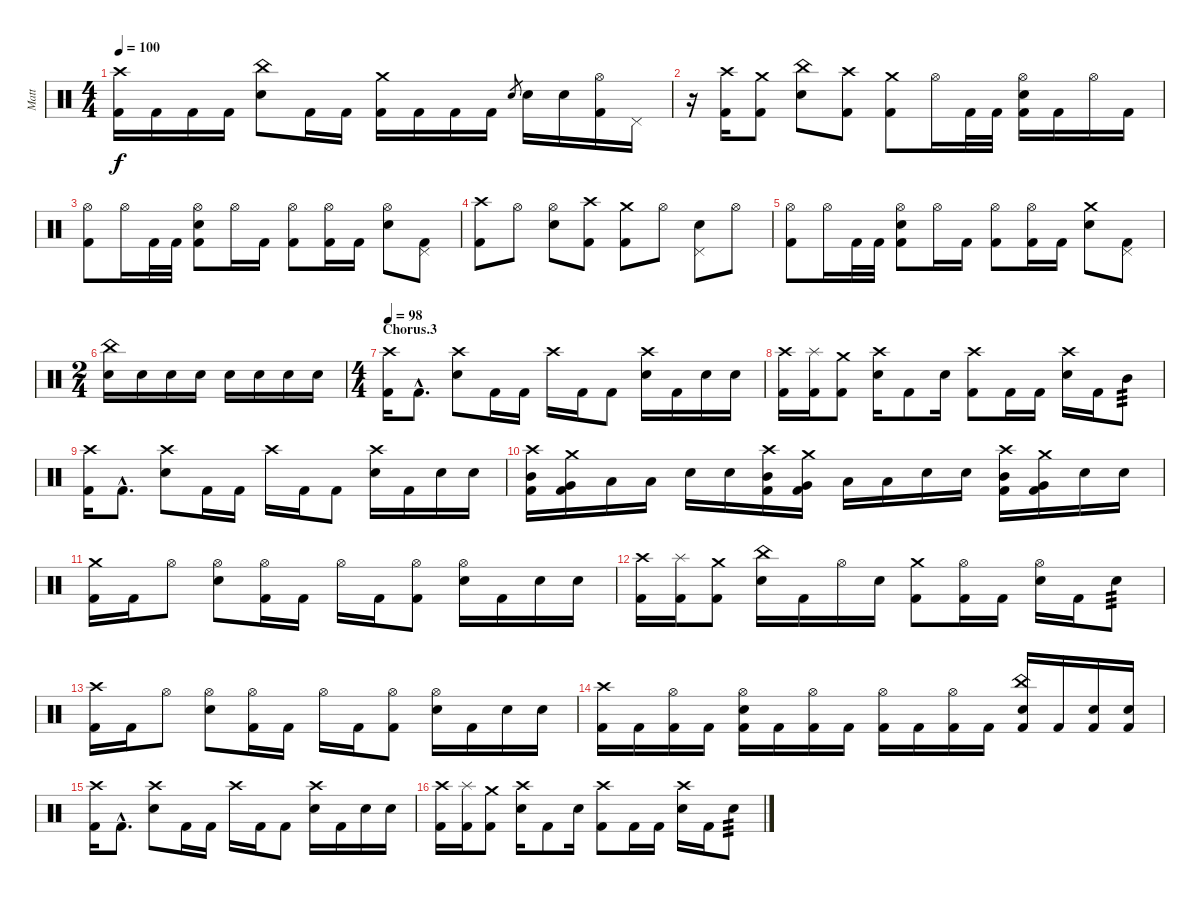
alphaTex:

\track ("Matt" "Matt") {instrument percussion}
\staff {score}
\articulation defaults
\ts (4 4)
\tempo 100
\clef neutral
\ks c
("Crash high (hit)" "Kick (hit) 2").16{dy f} "Kick (hit) 2".16 "Kick (hit) 2".16 "Kick (hit) 2".16 ("China (hit)" "Electric Snare (hit)").8 "Kick (hit) 2".16 "Kick (hit) 2".16 ("Crash medium (hit)" "Kick (hit) 2").16 "Kick (hit) 2".16 "Kick (hit) 2".16 "Kick (hit) 2".16 "Electric Snare (hit)".8{gr} "Electric Snare (hit)".16 "Electric Snare (hit)".16 ("Hi-Hat (open)" "Kick (hit) 2").16 "Pedal Hi-Hat (hit)".16 |
r.16 ("Crash high (hit)" "Kick (hit) 2").16 ("Crash medium (hit)" "Kick (hit) 2").8 ("China (hit)" "Electric Snare (hit)").8 ("Crash high (hit)" "Kick (hit) 2").8 ("Crash medium (hit)" "Kick (hit) 2").8 "Hi-Hat (open)".16 "Kick (hit) 2".32 "Kick (hit) 2".32 ("Hi-Hat (open)" "Electric Snare (hit)" "Kick (hit) 2").16 "Kick (hit) 2".16 "Hi-Hat (open)".16 "Kick (hit) 2".16 |
("Hi-Hat (open)" "Kick (hit) 2").8 "Hi-Hat (open)".16 "Kick (hit) 2".32 "Kick (hit) 2".32 ("Hi-Hat (open)" "Electric Snare (hit)" "Kick (hit) 2").8 "Hi-Hat (open)".16 "Kick (hit) 2".16 ("Hi-Hat (open)" "Kick (hit) 2").8 ("Hi-Hat (open)" "Kick (hit) 2").16 "Kick (hit) 2".16 ("Hi-Hat (open)" "Electric Snare (hit)").8 ("Pedal Hi-Hat (hit)" "Kick (hit) 2").8 |
("Crash high (hit)" "Kick (hit) 2").8 "Hi-Hat (open)".8 ("Hi-Hat (open)" "Electric Snare (hit)").8 ("Crash high (hit)" "Kick (hit) 2").8 ("Crash medium (hit)" "Kick (hit) 2").8 "Hi-Hat (open)".8 ("Pedal Hi-Hat (hit)" "Electric Snare (hit)").8 "Hi-Hat (open)".8 |
("Hi-Hat (open)" "Kick (hit) 2").8 "Hi-Hat (open)".16 "Kick (hit) 2".32 "Kick (hit) 2".32 ("Hi-Hat (open)" "Electric Snare (hit)" "Kick (hit) 2").8 "Hi-Hat (open)".16 "Kick (hit) 2".16 ("Hi-Hat (open)" "Kick (hit) 2").8 ("Hi-Hat (open)" "Kick (hit) 2").16 "Kick (hit) 2".16 ("Crash medium (hit)" "Electric Snare (hit)").8 ("Pedal Hi-Hat (hit)" "Kick (hit) 2").8 |
\ts (2 4)
("China (hit)" "Electric Snare (hit)").16 "Electric Snare (hit)".16 "Electric Snare (hit)".16 "Electric Snare (hit)".16 "Electric Snare (hit)".16 "Electric Snare (hit)".16 "Electric Snare (hit)".16 "Electric Snare (hit)".16 |
\ts (4 4)
\section ("" "Chorus.3")
\tempo 98
("Crash high (hit)" "Kick (hit) 2").16 "Kick (hit) 2"{hac}.8{d} ("Crash high (hit)" "Electric Snare (hit)").8 "Kick (hit) 2".16 "Kick (hit) 2".16 "Crash high (hit)".16 "Kick (hit) 2".16 "Kick (hit) 2".8 ("Crash high (hit)" "Electric Snare (hit)").16 "Kick (hit) 2".16 "Electric Snare (hit)".16 "Electric Snare (hit)".16 |
("Crash high (hit)" "Kick (hit) 2").16 ("Splash (hit)" "Kick (hit) 2").16 ("Crash medium (hit)" "Kick (hit) 2").8 ("Crash high (hit)" "Electric Snare (hit)").16 "Kick (hit) 2".8 "Electric Snare (hit)".16 ("Crash high (hit)" "Kick (hit) 2").8 "Kick (hit) 2".16 "Kick (hit) 2".16 ("Crash high (hit)" "Electric Snare (hit)").16 "Kick (hit) 2".16 "Mid Tom (hit)".8{tp 3} |
("Crash high (hit)" "Kick (hit) 2").16 "Kick (hit) 2"{hac}.8{d} ("Crash high (hit)" "Electric Snare (hit)").8 "Kick (hit) 2".16 "Kick (hit) 2".16 "Crash high (hit)".16 "Kick (hit) 2".16 "Kick (hit) 2".8 ("Crash high (hit)" "Electric Snare (hit)").16 "Kick (hit) 2".16 "Electric Snare (hit)".16 "Electric Snare (hit)".16 |
("Crash high (hit)" "Mid Tom (hit)" "Kick (hit) 2").16 ("Crash medium (hit)" "Very Low Tom (hit)" "Kick (hit) 2").16 "Low Floor Tom (hit)".16 "Low Tom (hit)".16 "Electric Snare (hit)".16 "Electric Snare (hit)".16 ("Crash high (hit)" "Mid Tom (hit)" "Kick (hit) 2").16 ("Crash medium (hit)" "Very Low Tom (hit)" "Kick (hit) 2").16 "Low Floor Tom (hit)".16 "Low Tom (hit)".16 "Electric Snare (hit)".16 "Electric Snare (hit)".16 ("Crash high (hit)" "Mid Tom (hit)" "Kick (hit) 2").16 ("Crash medium (hit)" "Very Low Tom (hit)" "Kick (hit) 2").16 "Electric Snare (hit)".16 "Electric Snare (hit)".16 |
("Crash medium (hit)" "Kick (hit) 2").16 "Kick (hit) 2".16 "Hi-Hat (open)".8 ("Hi-Hat (open)" "Electric Snare (hit)").8 ("Hi-Hat (open)" "Kick (hit) 2").16 "Kick (hit) 2".16 "Hi-Hat (open)".16 "Kick (hit) 2".16 ("Hi-Hat (open)" "Kick (hit) 2").8 ("Hi-Hat (open)" "Electric Snare (hit)").16 "Kick (hit) 2".16 "Electric Snare (hit)".16 "Electric Snare (hit)".16 |
("Crash high (hit)" "Kick (hit) 2").16 ("Splash (hit)" "Kick (hit) 2").16 ("Crash medium (hit)" "Kick (hit) 2").8 ("China (hit)" "Electric Snare (hit)").16 "Kick (hit) 2".16 "Hi-Hat (open)".16 "Electric Snare (hit)".16 ("Crash medium (hit)" "Kick (hit) 2").8 ("Hi-Hat (open)" "Kick (hit) 2").16 "Kick (hit) 2".16 ("Hi-Hat (open)" "Electric Snare (hit)").16 "Kick (hit) 2".16 "Electric Snare (hit)".8{tp 3} |
("Crash high (hit)" "Kick (hit) 2").16 "Kick (hit) 2".16 "Hi-Hat (open)".8 ("Hi-Hat (open)" "Electric Snare (hit)").8 ("Hi-Hat (open)" "Kick (hit) 2").16 "Kick (hit) 2".16 "Hi-Hat (open)".16 "Kick (hit) 2".16 ("Hi-Hat (open)" "Kick (hit) 2").8 ("Hi-Hat (open)" "Electric Snare (hit)").16 "Kick (hit) 2".16 "Electric Snare (hit)".16 "Electric Snare (hit)".16 |
("Crash high (hit)" "Kick (hit) 2").16 "Kick (hit) 2".16 ("Hi-Hat (open)" "Kick (hit) 2").16 "Kick (hit) 2".16 ("Hi-Hat (open)" "Electric Snare (hit)" "Kick (hit) 2").16 "Kick (hit) 2".16 ("Hi-Hat (open)" "Kick (hit) 2").16 "Kick (hit) 2".16 ("Hi-Hat (open)" "Kick (hit) 2").16 "Kick (hit) 2".16 ("Hi-Hat (open)" "Kick (hit) 2").16 "Kick (hit) 2".16 ("China (hit)" "Electric Snare (hit)" "Kick (hit) 2").16 "Kick (hit) 2".16 ("Electric Snare (hit)" "Kick (hit) 2").16 ("Electric Snare (hit)" "Kick (hit) 2").16 |
("Crash high (hit)" "Kick (hit) 2").16 "Kick (hit) 2"{hac}.8{d} ("Crash high (hit)" "Electric Snare (hit)").8 "Kick (hit) 2".16 "Kick (hit) 2".16 "Crash high (hit)".16 "Kick (hit) 2".16 "Kick (hit) 2".8 ("Crash high (hit)" "Electric Snare (hit)").16 "Kick (hit) 2".16 "Electric Snare (hit)".16 "Electric Snare (hit)".16 |
("Crash high (hit)" "Kick (hit) 2").16 ("Splash (hit)" "Kick (hit) 2").16 ("Crash medium (hit)" "Kick (hit) 2").8 ("Crash high (hit)" "Electric Snare (hit)").16 "Kick (hit) 2".8 "Electric Snare (hit)".16 ("Crash high (hit)" "Kick (hit) 2").8 "Kick (hit) 2".16 "Kick (hit) 2".16 ("Crash high (hit)" "Electric Snare (hit)").16 "Kick (hit) 2".16 "Electric Snare (hit)".8{tp 3}
